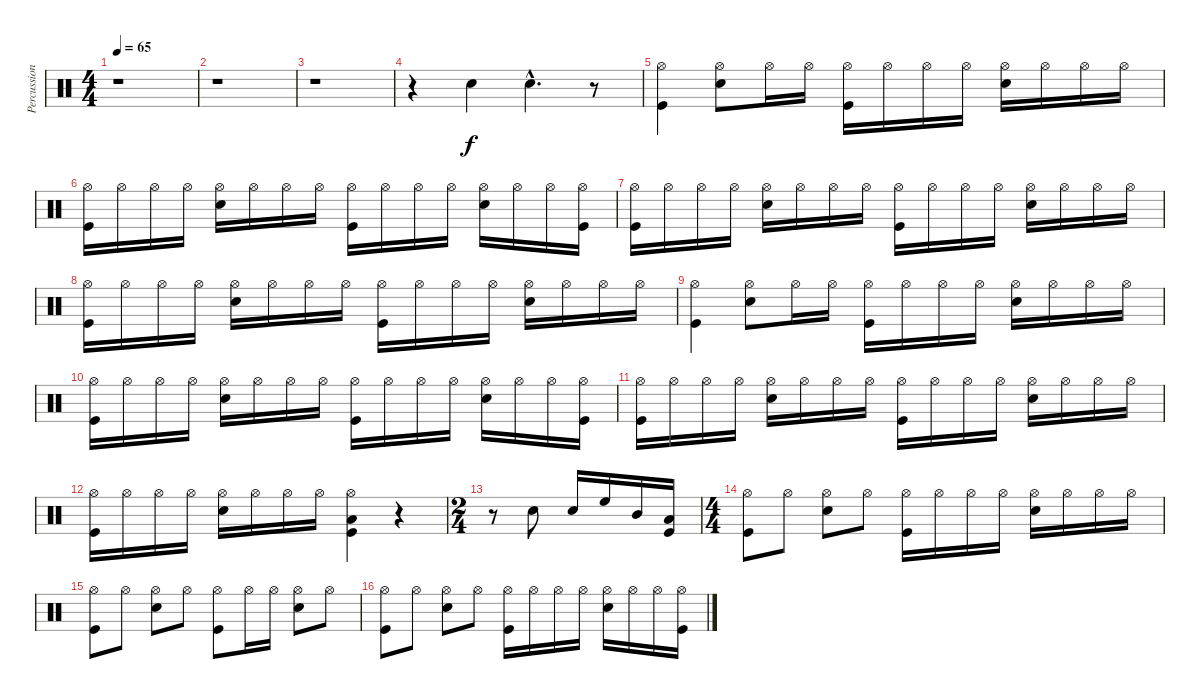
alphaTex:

\track ("Percussion" "Percussion") {instrument percussion}
\staff {score}
\articulation defaults
\ts (4 4)
\tempo 65
\clef neutral
\ks c
r.1{dy f} |
r.1 |
r.1 |
r.4 "Snare (hit) 2".4 "Snare (hit) 2"{hac}.4{d} r.8 |
("Hi-Hat (open)" "Kick (hit)").4 ("Hi-Hat (open)" "Snare (hit) 2").8 "Hi-Hat (open)".16 "Hi-Hat (open)".16 ("Hi-Hat (open)" "Kick (hit)").16 "Hi-Hat (open)".16 "Hi-Hat (open)".16 "Hi-Hat (open)".16 ("Hi-Hat (open)" "Snare (hit) 2").16 "Hi-Hat (open)".16 "Hi-Hat (open)".16 "Hi-Hat (open)".16 |
("Hi-Hat (open)" "Kick (hit)").16 "Hi-Hat (open)".16 "Hi-Hat (open)".16 "Hi-Hat (open)".16 ("Hi-Hat (open)" "Snare (hit) 2").16 "Hi-Hat (open)".16 "Hi-Hat (open)".16 "Hi-Hat (open)".16 ("Hi-Hat (open)" "Kick (hit)").16 "Hi-Hat (open)".16 "Hi-Hat (open)".16 "Hi-Hat (open)".16 ("Hi-Hat (open)" "Snare (hit) 2").16 "Hi-Hat (open)".16 "Hi-Hat (open)".16 ("Hi-Hat (open)" "Kick (hit)").16 |
("Hi-Hat (open)" "Kick (hit)").16 "Hi-Hat (open)".16 "Hi-Hat (open)".16 "Hi-Hat (open)".16 ("Hi-Hat (open)" "Snare (hit) 2").16 "Hi-Hat (open)".16 "Hi-Hat (open)".16 "Hi-Hat (open)".16 ("Hi-Hat (open)" "Kick (hit)").16 "Hi-Hat (open)".16 "Hi-Hat (open)".16 "Hi-Hat (open)".16 ("Hi-Hat (open)" "Snare (hit) 2").16 "Hi-Hat (open)".16 "Hi-Hat (open)".16 "Hi-Hat (open)".16 |
("Hi-Hat (open)" "Kick (hit)").16 "Hi-Hat (open)".16 "Hi-Hat (open)".16 "Hi-Hat (open)".16 ("Hi-Hat (open)" "Snare (hit) 2").16 "Hi-Hat (open)".16 "Hi-Hat (open)".16 "Hi-Hat (open)".16 ("Hi-Hat (open)" "Kick (hit)").16 "Hi-Hat (open)".16 "Hi-Hat (open)".16 "Hi-Hat (open)".16 ("Hi-Hat (open)" "Snare (hit) 2").16 "Hi-Hat (open)".16 "Hi-Hat (open)".16 "Hi-Hat (open)".16 |
("Hi-Hat (open)" "Kick (hit)").4 ("Hi-Hat (open)" "Snare (hit) 2").8 "Hi-Hat (open)".16 "Hi-Hat (open)".16 ("Hi-Hat (open)" "Kick (hit)").16 "Hi-Hat (open)".16 "Hi-Hat (open)".16 "Hi-Hat (open)".16 ("Hi-Hat (open)" "Snare (hit) 2").16 "Hi-Hat (open)".16 "Hi-Hat (open)".16 "Hi-Hat (open)".16 |
("Hi-Hat (open)" "Kick (hit)").16 "Hi-Hat (open)".16 "Hi-Hat (open)".16 "Hi-Hat (open)".16 ("Hi-Hat (open)" "Snare (hit) 2").16 "Hi-Hat (open)".16 "Hi-Hat (open)".16 "Hi-Hat (open)".16 ("Hi-Hat (open)" "Kick (hit)").16 "Hi-Hat (open)".16 "Hi-Hat (open)".16 "Hi-Hat (open)".16 ("Hi-Hat (open)" "Snare (hit) 2").16 "Hi-Hat (open)".16 "Hi-Hat (open)".16 ("Hi-Hat (open)" "Kick (hit)").16 |
("Hi-Hat (open)" "Kick (hit)").16 "Hi-Hat (open)".16 "Hi-Hat (open)".16 "Hi-Hat (open)".16 ("Hi-Hat (open)" "Snare (hit) 2").16 "Hi-Hat (open)".16 "Hi-Hat (open)".16 "Hi-Hat (open)".16 ("Hi-Hat (open)" "Kick (hit)").16 "Hi-Hat (open)".16 "Hi-Hat (open)".16 "Hi-Hat (open)".16 ("Hi-Hat (open)" "Snare (hit) 2").16 "Hi-Hat (open)".16 "Hi-Hat (open)".16 "Hi-Hat (open)".16 |
("Hi-Hat (open)" "Kick (hit)").16 "Hi-Hat (open)".16 "Hi-Hat (open)".16 "Hi-Hat (open)".16 ("Hi-Hat (open)" "Snare (hit) 2").16 "Hi-Hat (open)".16 "Hi-Hat (open)".16 "Hi-Hat (open)".16 ("Hi-Hat (open)" "Kick (hit)" "Low Tom (hit)").4 r.4 |
\ts (2 4)
r.8 "Snare (hit) 2".8 "Snare (hit) 2".16 "High Floor Tom (hit)".16 "Mid Tom (hit)".16 ("Kick (hit)" "Low Tom (hit)").16 |
\ts (4 4)
("Hi-Hat (open)" "Kick (hit)").8 "Hi-Hat (open)".8 ("Hi-Hat (open)" "Snare (hit) 2").8 "Hi-Hat (open)".8 ("Hi-Hat (open)" "Kick (hit)").16 "Hi-Hat (open)".16 "Hi-Hat (open)".16 "Hi-Hat (open)".16 ("Hi-Hat (open)" "Snare (hit) 2").16 "Hi-Hat (open)".16 "Hi-Hat (open)".16 "Hi-Hat (open)".16 |
("Hi-Hat (open)" "Kick (hit)").8 "Hi-Hat (open)".8 ("Hi-Hat (open)" "Snare (hit) 2").8 "Hi-Hat (open)".8 ("Hi-Hat (open)" "Kick (hit)").8 "Hi-Hat (open)".16 "Hi-Hat (open)".16 ("Hi-Hat (open)" "Snare (hit) 2").8 "Hi-Hat (open)".8 |
("Hi-Hat (open)" "Kick (hit)").8 "Hi-Hat (open)".8 ("Hi-Hat (open)" "Snare (hit) 2").8 "Hi-Hat (open)".8 ("Hi-Hat (open)" "Kick (hit)").16 "Hi-Hat (open)".16 "Hi-Hat (open)".16 "Hi-Hat (open)".16 ("Hi-Hat (open)" "Snare (hit) 2").16 "Hi-Hat (open)".16 "Hi-Hat (open)".16 ("Hi-Hat (open)" "Kick (hit)").16
